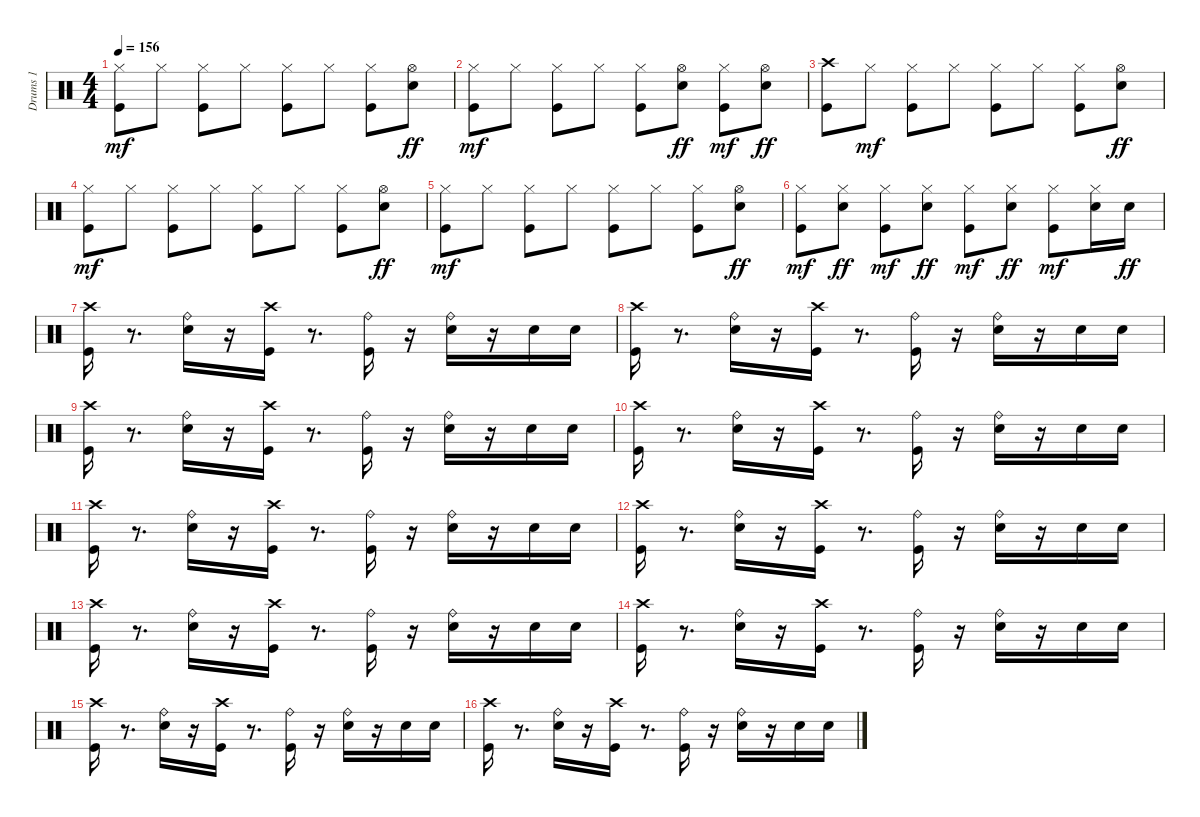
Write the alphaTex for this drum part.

\track ("Drums 1" "Drums 1") {instrument percussion}
\staff {score}
\articulation defaults
\ts (4 4)
\tempo 156
\clef neutral
\ks c
("Kick (hit)" "Hi-Hat (closed)").8{dy mf} "Hi-Hat (closed)".8 ("Kick (hit)" "Hi-Hat (closed)").8 "Hi-Hat (closed)".8 ("Kick (hit)" "Hi-Hat (closed)").8 "Hi-Hat (closed)".8 ("Kick (hit)" "Hi-Hat (closed)").8 ("Electric Snare (hit)" "Hi-Hat (open)").8{dy ff} |
("Kick (hit)" "Hi-Hat (closed)").8{dy mf} "Hi-Hat (closed)".8 ("Kick (hit)" "Hi-Hat (closed)").8 "Hi-Hat (closed)".8 ("Kick (hit)" "Hi-Hat (closed)").8 ("Hi-Hat (open)" "Electric Snare (hit)").8{dy ff} ("Kick (hit)" "Hi-Hat (closed)").8{dy mf} ("Hi-Hat (open)" "Electric Snare (hit)").8{dy ff} |
("Kick (hit)" "Crash high (hit)").8 "Hi-Hat (closed)".8{dy mf} ("Kick (hit)" "Hi-Hat (closed)").8 "Hi-Hat (closed)".8 ("Kick (hit)" "Hi-Hat (closed)").8 "Hi-Hat (closed)".8 ("Kick (hit)" "Hi-Hat (closed)").8 ("Electric Snare (hit)" "Hi-Hat (open)").8{dy ff} |
("Kick (hit)" "Hi-Hat (closed)").8{dy mf} "Hi-Hat (closed)".8 ("Kick (hit)" "Hi-Hat (closed)").8 "Hi-Hat (closed)".8 ("Kick (hit)" "Hi-Hat (closed)").8 "Hi-Hat (closed)".8 ("Kick (hit)" "Hi-Hat (closed)").8 ("Electric Snare (hit)" "Hi-Hat (open)").8{dy ff} |
("Kick (hit)" "Hi-Hat (closed)").8{dy mf} "Hi-Hat (closed)".8 ("Kick (hit)" "Hi-Hat (closed)").8 "Hi-Hat (closed)".8 ("Kick (hit)" "Hi-Hat (closed)").8 "Hi-Hat (closed)".8 ("Kick (hit)" "Hi-Hat (closed)").8 ("Electric Snare (hit)" "Hi-Hat (open)").8{dy ff} |
("Kick (hit)" "Hi-Hat (closed)").8{dy mf} ("Hi-Hat (closed)" "Electric Snare (hit)").8{dy ff} ("Kick (hit)" "Hi-Hat (closed)").8{dy mf} ("Hi-Hat (closed)" "Electric Snare (hit)").8{dy ff} ("Kick (hit)" "Hi-Hat (closed)").8{dy mf} ("Hi-Hat (closed)" "Electric Snare (hit)").8{dy ff} ("Kick (hit)" "Hi-Hat (closed)").8{dy mf} ("Electric Snare (hit)" "Hi-Hat (closed)").16 "Electric Snare (hit)".16{dy ff} |
("Kick (hit)" "Crash high (hit)").16 r.8{d} ("Ride (bell)" "Electric Snare (hit)").16 r.16 ("Crash high (hit)" "Kick (hit)").16 r.8{d} ("Ride (bell)" "Kick (hit)").16 r.16 ("Electric Snare (hit)" "Ride (bell)").16 r.16 "Electric Snare (hit)".16 "Electric Snare (hit)".16 |
("Kick (hit)" "Crash high (hit)").16 r.8{d} ("Ride (bell)" "Electric Snare (hit)").16 r.16 ("Crash high (hit)" "Kick (hit)").16 r.8{d} ("Ride (bell)" "Kick (hit)").16 r.16 ("Electric Snare (hit)" "Ride (bell)").16 r.16 "Electric Snare (hit)".16 "Electric Snare (hit)".16 |
("Kick (hit)" "Crash high (hit)").16 r.8{d} ("Ride (bell)" "Electric Snare (hit)").16 r.16 ("Crash high (hit)" "Kick (hit)").16 r.8{d} ("Ride (bell)" "Kick (hit)").16 r.16 ("Electric Snare (hit)" "Ride (bell)").16 r.16 "Electric Snare (hit)".16 "Electric Snare (hit)".16 |
("Kick (hit)" "Crash high (hit)").16 r.8{d} ("Ride (bell)" "Electric Snare (hit)").16 r.16 ("Crash high (hit)" "Kick (hit)").16 r.8{d} ("Ride (bell)" "Kick (hit)").16 r.16 ("Electric Snare (hit)" "Ride (bell)").16 r.16 "Electric Snare (hit)".16 "Electric Snare (hit)".16 |
("Kick (hit)" "Crash high (hit)").16 r.8{d} ("Ride (bell)" "Electric Snare (hit)").16 r.16 ("Crash high (hit)" "Kick (hit)").16 r.8{d} ("Ride (bell)" "Kick (hit)").16 r.16 ("Electric Snare (hit)" "Ride (bell)").16 r.16 "Electric Snare (hit)".16 "Electric Snare (hit)".16 |
("Kick (hit)" "Crash high (hit)").16 r.8{d} ("Ride (bell)" "Electric Snare (hit)").16 r.16 ("Crash high (hit)" "Kick (hit)").16 r.8{d} ("Ride (bell)" "Kick (hit)").16 r.16 ("Electric Snare (hit)" "Ride (bell)").16 r.16 "Electric Snare (hit)".16 "Electric Snare (hit)".16 |
("Kick (hit)" "Crash high (hit)").16 r.8{d} ("Ride (bell)" "Electric Snare (hit)").16 r.16 ("Crash high (hit)" "Kick (hit)").16 r.8{d} ("Ride (bell)" "Kick (hit)").16 r.16 ("Electric Snare (hit)" "Ride (bell)").16 r.16 "Electric Snare (hit)".16 "Electric Snare (hit)".16 |
("Kick (hit)" "Crash high (hit)").16 r.8{d} ("Ride (bell)" "Electric Snare (hit)").16 r.16 ("Crash high (hit)" "Kick (hit)").16 r.8{d} ("Ride (bell)" "Kick (hit)").16 r.16 ("Electric Snare (hit)" "Ride (bell)").16 r.16 "Electric Snare (hit)".16 "Electric Snare (hit)".16 |
("Kick (hit)" "Crash high (hit)").16 r.8{d} ("Ride (bell)" "Electric Snare (hit)").16 r.16 ("Crash high (hit)" "Kick (hit)").16 r.8{d} ("Ride (bell)" "Kick (hit)").16 r.16 ("Electric Snare (hit)" "Ride (bell)").16 r.16 "Electric Snare (hit)".16 "Electric Snare (hit)".16 |
("Kick (hit)" "Crash high (hit)").16 r.8{d} ("Ride (bell)" "Electric Snare (hit)").16 r.16 ("Crash high (hit)" "Kick (hit)").16 r.8{d} ("Ride (bell)" "Kick (hit)").16 r.16 ("Electric Snare (hit)" "Ride (bell)").16 r.16 "Electric Snare (hit)".16 "Electric Snare (hit)".16
